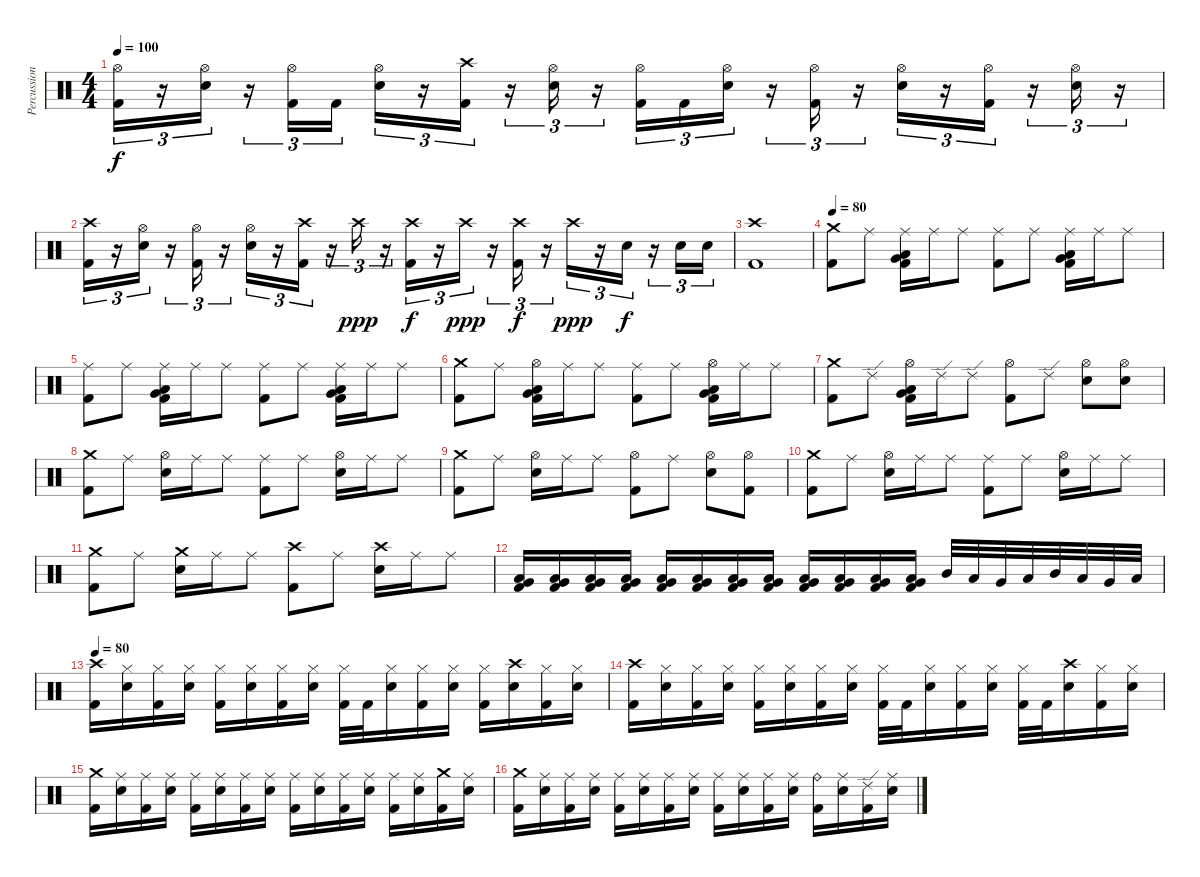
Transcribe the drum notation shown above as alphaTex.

\track ("Percussion" "Percussion") {instrument percussion}
\staff {score}
\articulation defaults
\ts (4 4)
\tempo 100
\clef neutral
\ks c
("Hi-Hat (open)" "Kick (hit) 2").16{tu (3 2) dy f} r.16{tu (3 2)} ("Hi-Hat (open)" "Snare (hit) 2").16{tu (3 2)} r.16{tu (3 2)} ("Kick (hit) 2" "Hi-Hat (open)").16{tu (3 2)} "Kick (hit) 2".16{tu (3 2)} ("Snare (hit) 2" "Hi-Hat (open)").16{tu (3 2)} r.16{tu (3 2)} ("Crash high (hit)" "Kick (hit) 2").16{tu (3 2)} r.16{tu (3 2)} ("Hi-Hat (open)" "Snare (hit) 2").16{tu (3 2)} r.16{tu (3 2)} ("Kick (hit) 2" "Hi-Hat (open)").16{tu (3 2)} "Kick (hit) 2".16{tu (3 2)} ("Hi-Hat (open)" "Snare (hit) 2").16{tu (3 2)} r.16{tu (3 2)} ("Kick (hit) 2" "Hi-Hat (open)").16{tu (3 2)} r.16{tu (3 2)} ("Hi-Hat (open)" "Snare (hit) 2").16{tu (3 2)} r.16{tu (3 2)} ("Kick (hit) 2" "Hi-Hat (open)").16{tu (3 2)} r.16{tu (3 2)} ("Hi-Hat (open)" "Snare (hit) 2").16{tu (3 2)} r.16{tu (3 2)} |
("Crash high (hit)" "Kick (hit) 2").16{tu (3 2)} r.16{tu (3 2)} ("Hi-Hat (open)" "Snare (hit) 2").16{tu (3 2)} r.16{tu (3 2)} ("Kick (hit) 2" "Hi-Hat (open)").16{tu (3 2)} r.16{tu (3 2)} ("Snare (hit) 2" "Hi-Hat (open)").16{tu (3 2)} r.16{tu (3 2)} ("Kick (hit) 2" "Crash high (hit)").16{tu (3 2)} r.16{tu (3 2)} "Crash high (hit)".16{tu (3 2) dy ppp} r.16{tu (3 2)} ("Kick (hit) 2" "Crash high (hit)").16{tu (3 2) dy f} r.16{tu (3 2)} "Crash high (hit)".16{tu (3 2) dy ppp} r.16{tu (3 2)} ("Kick (hit) 2" "Crash high (hit)").16{tu (3 2) dy f} r.16{tu (3 2)} "Crash high (hit)".16{tu (3 2) dy ppp} r.16{tu (3 2)} "Snare (hit) 2".16{tu (3 2) dy f} r.16{tu (3 2)} "Snare (hit) 2".16{tu (3 2)} "Snare (hit) 2".16{tu (3 2)} |
("Crash high (hit)" "Kick (hit) 2").1 |
\tempo 80
("Crash medium (hit)" "Kick (hit) 2").8 "Ride (middle)".8 ("Ride (middle)" "Very Low Tom (hit)" "Low Floor Tom (hit)" "Kick (hit) 2").16 "Ride (middle)".16 "Ride (middle)".8 ("Ride (middle)" "Kick (hit) 2").8 "Ride (middle)".8 ("Ride (middle)" "Very Low Tom (hit)" "Low Floor Tom (hit)" "Kick (hit) 2").16 "Ride (middle)".16 "Ride (middle)".8 |
("Ride (middle)" "Kick (hit) 2").8 "Ride (middle)".8 ("Ride (middle)" "Very Low Tom (hit)" "Low Floor Tom (hit)" "Kick (hit) 2").16 "Ride (middle)".16 "Ride (middle)".8 ("Ride (middle)" "Kick (hit) 2").8 "Ride (middle)".8 ("Ride (middle)" "Very Low Tom (hit)" "Low Floor Tom (hit)" "Kick (hit) 2").16 "Ride (middle)".16 "Ride (middle)".8 |
("Crash medium (hit)" "Kick (hit) 2").8 "Ride (middle)".8 ("Hi-Hat (open)" "Very Low Tom (hit)" "Low Floor Tom (hit)" "Kick (hit) 2").16 "Ride (middle)".16 "Ride (middle)".8 ("Ride (middle)" "Kick (hit) 2").8 "Ride (middle)".8 ("Hi-Hat (open)" "Very Low Tom (hit)" "Low Floor Tom (hit)" "Kick (hit) 2").16 "Ride (middle)".16 "Ride (middle)".8 |
("Crash medium (hit)" "Kick (hit) 2").8 "Ride (edge) 2".8 ("Hi-Hat (open)" "Very Low Tom (hit)" "Low Floor Tom (hit)" "Kick (hit) 2").16 "Ride (edge) 2".16 "Ride (edge) 2".8 ("Hi-Hat (open)" "Kick (hit) 2").8 "Ride (edge) 2".8 ("Hi-Hat (open)" "Snare (hit) 2").8 ("Hi-Hat (open)" "Snare (hit) 2").8 |
("Crash medium (hit)" "Kick (hit) 2").8 "Ride (middle)".8 ("Hi-Hat (open)" "Snare (hit) 2").16 "Ride (middle)".16 "Ride (middle)".8 ("Ride (middle)" "Kick (hit) 2").8 "Ride (middle)".8 ("Hi-Hat (open)" "Snare (hit) 2").16 "Ride (middle)".16 "Ride (middle)".8 |
("Crash medium (hit)" "Kick (hit) 2").8 "Ride (middle)".8 ("Hi-Hat (open)" "Snare (hit) 2").16 "Ride (middle)".16 "Ride (middle)".8 ("Hi-Hat (open)" "Kick (hit) 2").8 "Ride (middle)".8 ("Hi-Hat (open)" "Snare (hit) 2").8 ("Hi-Hat (open)" "Kick (hit) 2").8 |
("Crash medium (hit)" "Kick (hit) 2").8 "Ride (middle)".8 ("Hi-Hat (open)" "Snare (hit) 2").16 "Ride (middle)".16 "Ride (middle)".8 ("Ride (middle)" "Kick (hit) 2").8 "Ride (middle)".8 ("Hi-Hat (open)" "Snare (hit) 2").16 "Ride (middle)".16 "Ride (middle)".8 |
("Crash medium (hit)" "Kick (hit) 2").8 "Ride (middle)".8 ("Crash medium (hit)" "Snare (hit) 2").16 "Ride (middle)".16 "Ride (middle)".8 ("Crash high (hit)" "Kick (hit) 2").8 "Ride (middle)".8 ("Crash high (hit)" "Snare (hit) 2").16 "Ride (middle)".16 "Ride (middle)".8 |
("Low Floor Tom (hit)" "Very Low Tom (hit)" "Kick (hit) 2").16 ("Low Floor Tom (hit)" "Very Low Tom (hit)" "Kick (hit) 2").16 ("Low Floor Tom (hit)" "Very Low Tom (hit)" "Kick (hit) 2").16 ("Low Floor Tom (hit)" "Very Low Tom (hit)" "Kick (hit) 2").16 ("Low Floor Tom (hit)" "Very Low Tom (hit)" "Kick (hit) 2").16 ("Low Floor Tom (hit)" "Very Low Tom (hit)" "Kick (hit) 2").16 ("Low Floor Tom (hit)" "Very Low Tom (hit)" "Kick (hit) 2").16 ("Low Floor Tom (hit)" "Very Low Tom (hit)" "Kick (hit) 2").16 ("Low Floor Tom (hit)" "Very Low Tom (hit)" "Kick (hit) 2").16 ("Low Floor Tom (hit)" "Very Low Tom (hit)" "Kick (hit) 2").16 ("Low Floor Tom (hit)" "Very Low Tom (hit)" "Kick (hit) 2").16 ("Low Floor Tom (hit)" "Very Low Tom (hit)" "Kick (hit) 2").16 "Mid Tom (hit)".32 "Low Tom (hit)".32 "Very Low Tom (hit)".32 "Low Floor Tom (hit)".32 "Mid Tom (hit)".32 "Low Tom (hit)".32 "Very Low Tom (hit)".32 "Low Floor Tom (hit)".32 |
\tempo 80
("Crash high (hit)" "Kick (hit) 2").16 ("Hi-Hat (closed)" "Snare (hit) 2").16 ("Hi-Hat (closed)" "Kick (hit) 2").16 ("Hi-Hat (closed)" "Snare (hit) 2").16 ("Hi-Hat (closed)" "Kick (hit) 2").16 ("Hi-Hat (closed)" "Snare (hit) 2").16 ("Hi-Hat (closed)" "Kick (hit) 2").16 ("Hi-Hat (closed)" "Snare (hit) 2").16 ("Hi-Hat (closed)" "Kick (hit) 2").32 "Kick (hit) 2".32 ("Hi-Hat (closed)" "Snare (hit) 2").16 ("Hi-Hat (closed)" "Kick (hit) 2").16 ("Hi-Hat (closed)" "Snare (hit) 2").16 ("Hi-Hat (closed)" "Kick (hit) 2").16 ("Crash high (hit)" "Snare (hit) 2").16 ("Hi-Hat (closed)" "Kick (hit) 2").16 ("Hi-Hat (closed)" "Snare (hit) 2").16 |
("Crash high (hit)" "Kick (hit) 2").16 ("Hi-Hat (closed)" "Snare (hit) 2").16 ("Hi-Hat (closed)" "Kick (hit) 2").16 ("Hi-Hat (closed)" "Snare (hit) 2").16 ("Hi-Hat (closed)" "Kick (hit) 2").16 ("Hi-Hat (closed)" "Snare (hit) 2").16 ("Hi-Hat (closed)" "Kick (hit) 2").16 ("Hi-Hat (closed)" "Snare (hit) 2").16 ("Hi-Hat (closed)" "Kick (hit) 2").32 "Kick (hit) 2".32 ("Hi-Hat (closed)" "Snare (hit) 2").16 ("Hi-Hat (closed)" "Kick (hit) 2").16 ("Hi-Hat (closed)" "Snare (hit) 2").16 ("Hi-Hat (closed)" "Kick (hit) 2").32 "Kick (hit) 2".32 ("Crash high (hit)" "Snare (hit) 2").16 ("Hi-Hat (closed)" "Kick (hit) 2").16 ("Hi-Hat (closed)" "Snare (hit) 2").16 |
("Crash medium (hit)" "Kick (hit) 2").16 ("Ride (middle)" "Snare (hit) 2").16 ("Ride (middle)" "Kick (hit) 2").16 ("Ride (middle)" "Snare (hit) 2").16 ("Ride (middle)" "Kick (hit) 2").16 ("Ride (middle)" "Snare (hit) 2").16 ("Ride (middle)" "Kick (hit) 2").16 ("Ride (middle)" "Snare (hit) 2").16 ("Ride (middle)" "Kick (hit) 2").16 ("Ride (middle)" "Snare (hit) 2").16 ("Ride (middle)" "Kick (hit) 2").16 ("Ride (middle)" "Snare (hit) 2").16 ("Ride (middle)" "Kick (hit) 2").16 ("Ride (middle)" "Snare (hit) 2").16 ("Crash medium (hit)" "Kick (hit) 2").16 ("Ride (middle)" "Snare (hit) 2").16 |
("Crash medium (hit)" "Kick (hit) 2").16 ("Ride (middle)" "Snare (hit) 2").16 ("Ride (middle)" "Kick (hit) 2").16 ("Ride (middle)" "Snare (hit) 2").16 ("Ride (middle)" "Kick (hit) 2").16 ("Ride (middle)" "Snare (hit) 2").16 ("Ride (middle)" "Kick (hit) 2").16 ("Ride (middle)" "Snare (hit) 2").16 ("Ride (middle)" "Kick (hit) 2").16 ("Ride (middle)" "Snare (hit) 2").16 ("Ride (middle)" "Kick (hit) 2").16 ("Ride (middle)" "Snare (hit) 2").16 ("Ride (bell)" "Kick (hit) 2").16 ("Ride (middle)" "Snare (hit) 2").16 ("Ride (edge) 2" "Kick (hit) 2").16 ("Ride (middle)" "Snare (hit) 2").16
